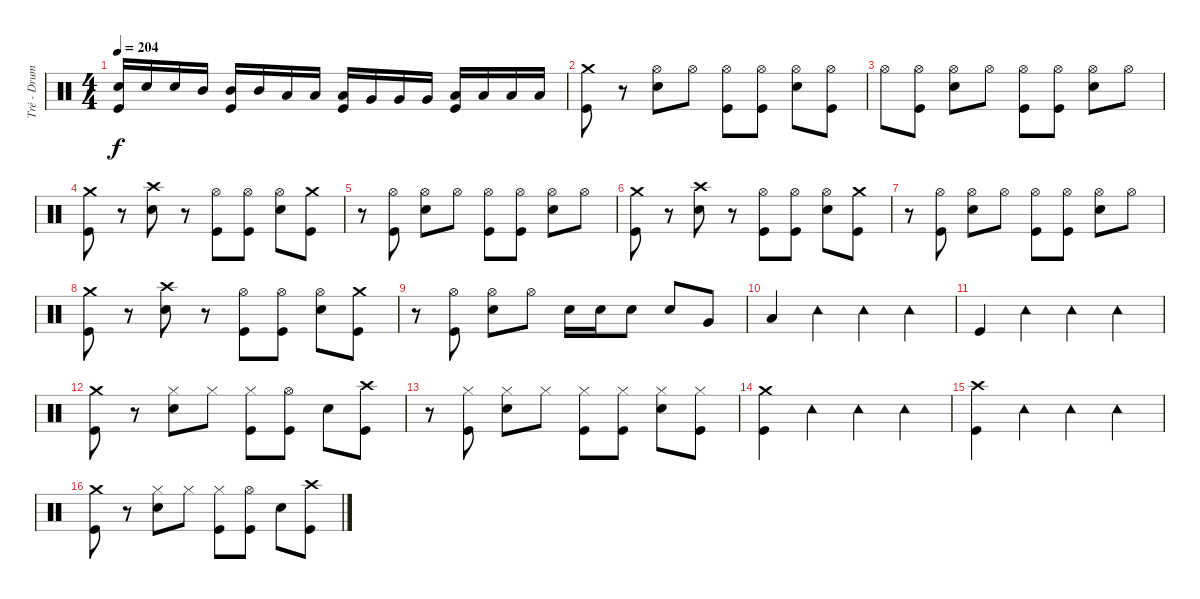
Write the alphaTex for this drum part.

\track ("Tré - Drums" "Tré - Drum") {instrument percussion}
\staff {score}
\articulation defaults
\ts (4 4)
\tempo 204
\clef neutral
\ks c
("Electric Snare (hit)" "Kick (hit)").16{dy f} "Electric Snare (hit)".16 "Electric Snare (hit)".16 "Mid Tom (hit)".16 ("Mid Tom (hit)" "Kick (hit)").16 "Mid Tom (hit)".16 "Low Tom (hit)".16 "Low Tom (hit)".16 ("Low Tom (hit)" "Kick (hit)").16 "Very Low Tom (hit)".16 "Very Low Tom (hit)".16 "Very Low Tom (hit)".16 ("Low Floor Tom (hit)" "Kick (hit)").16 "Low Floor Tom (hit)".16 "Low Floor Tom (hit)".16 "Low Floor Tom (hit)".16 |
("Crash medium (hit)" "Kick (hit)").8 r.8 ("Hi-Hat (open)" "Electric Snare (hit)").8 "Hi-Hat (open)".8 ("Hi-Hat (open)" "Kick (hit)").8 ("Hi-Hat (open)" "Kick (hit)").8 ("Hi-Hat (open)" "Electric Snare (hit)").8 ("Hi-Hat (open)" "Kick (hit)").8 |
"Hi-Hat (open)".8 ("Hi-Hat (open)" "Kick (hit)").8 ("Hi-Hat (open)" "Electric Snare (hit)").8 "Hi-Hat (open)".8 ("Hi-Hat (open)" "Kick (hit)").8 ("Hi-Hat (open)" "Kick (hit)").8 ("Hi-Hat (open)" "Electric Snare (hit)").8 "Hi-Hat (open)".8 |
("Crash medium (hit)" "Kick (hit)").8 r.8 ("Crash high (hit)" "Electric Snare (hit)").8 r.8 ("Hi-Hat (open)" "Kick (hit)").8 ("Hi-Hat (open)" "Kick (hit)").8 ("Hi-Hat (open)" "Electric Snare (hit)").8 ("Crash medium (hit)" "Kick (hit)").8 |
r.8 ("Hi-Hat (open)" "Kick (hit)").8 ("Hi-Hat (open)" "Electric Snare (hit)").8 "Hi-Hat (open)".8 ("Hi-Hat (open)" "Kick (hit)").8 ("Hi-Hat (open)" "Kick (hit)").8 ("Hi-Hat (open)" "Electric Snare (hit)").8 "Hi-Hat (open)".8 |
("Crash medium (hit)" "Kick (hit)").8 r.8 ("Crash high (hit)" "Electric Snare (hit)").8 r.8 ("Hi-Hat (open)" "Kick (hit)").8 ("Hi-Hat (open)" "Kick (hit)").8 ("Hi-Hat (open)" "Electric Snare (hit)").8 ("Crash medium (hit)" "Kick (hit)").8 |
r.8 ("Hi-Hat (open)" "Kick (hit)").8 ("Hi-Hat (open)" "Electric Snare (hit)").8 "Hi-Hat (open)".8 ("Hi-Hat (open)" "Kick (hit)").8 ("Hi-Hat (open)" "Kick (hit)").8 ("Hi-Hat (open)" "Electric Snare (hit)").8 "Hi-Hat (open)".8 |
("Crash medium (hit)" "Kick (hit)").8 r.8 ("Crash high (hit)" "Electric Snare (hit)").8 r.8 ("Hi-Hat (open)" "Kick (hit)").8 ("Hi-Hat (open)" "Kick (hit)").8 ("Hi-Hat (open)" "Electric Snare (hit)").8 ("Crash medium (hit)" "Kick (hit)").8 |
r.8 ("Hi-Hat (open)" "Kick (hit)").8 ("Hi-Hat (open)" "Electric Snare (hit)").8 "Hi-Hat (open)".8 "Electric Snare (hit)".16 "Electric Snare (hit)".16 "Electric Snare (hit)".8 "Electric Snare (hit)".8 "Very Low Tom (hit)".8 |
"Low Floor Tom (hit)".4 "Tambourine (hit)".4 "Tambourine (hit)".4 "Tambourine (hit)".4 |
"Kick (hit)".4 "Tambourine (hit)".4 "Tambourine (hit)".4 "Tambourine (hit)".4 |
("Crash medium (hit)" "Kick (hit)").8 r.8 ("Hi-Hat (closed)" "Electric Snare (hit)").8 "Hi-Hat (closed)".8 ("Hi-Hat (closed)" "Kick (hit)").8 ("Hi-Hat (open)" "Kick (hit)").8 "Electric Snare (hit)".8 ("Crash high (hit)" "Kick (hit)").8 |
r.8 ("Hi-Hat (closed)" "Kick (hit)").8 ("Hi-Hat (closed)" "Electric Snare (hit)").8 "Hi-Hat (closed)".8 ("Hi-Hat (closed)" "Kick (hit)").8 ("Hi-Hat (closed)" "Kick (hit)").8 ("Hi-Hat (closed)" "Electric Snare (hit)").8 ("Hi-Hat (closed)" "Kick (hit)").8 |
("Crash medium (hit)" "Kick (hit)").4 "Tambourine (hit)".4 "Tambourine (hit)".4 "Tambourine (hit)".4 |
("Crash high (hit)" "Kick (hit)").4 "Tambourine (hit)".4 "Tambourine (hit)".4 "Tambourine (hit)".4 |
("Crash medium (hit)" "Kick (hit)").8 r.8 ("Hi-Hat (closed)" "Electric Snare (hit)").8 "Hi-Hat (closed)".8 ("Hi-Hat (closed)" "Kick (hit)").8 ("Hi-Hat (open)" "Kick (hit)").8 "Electric Snare (hit)".8 ("Crash high (hit)" "Kick (hit)").8
